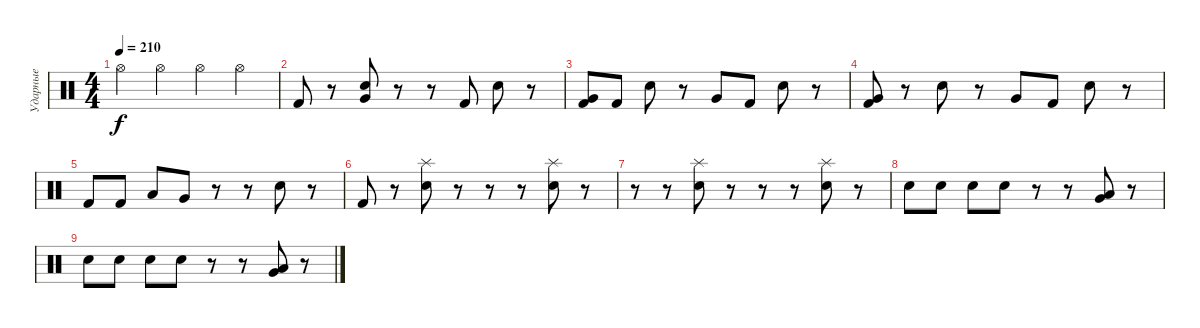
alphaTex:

\track ("Ударные" "Ударные") {instrument percussion}
\staff {score}
\articulation defaults
\ts (4 4)
\tempo 210
\clef neutral
\ks c "Hi-Hat (open)".4{dy f} "Hi-Hat (open)".4 "Hi-Hat (open)".4 "Hi-Hat (open)".4
|
"Kick (hit) 2".8 r.8 ("Very Low Tom (hit)" "Electric Snare (hit)").8 r.8 r.8 "Kick (hit) 2".8 "Electric Snare (hit)".8 r.8 |
("Very Low Tom (hit)" "Kick (hit) 2").8 "Kick (hit) 2".8 "Electric Snare (hit)".8 r.8 "Very Low Tom (hit)".8 "Kick (hit) 2".8 "Electric Snare (hit)".8 r.8 |
("Very Low Tom (hit)" "Kick (hit) 2").8 r.8 "Electric Snare (hit)".8 r.8 "Very Low Tom (hit)".8 "Kick (hit) 2".8 "Electric Snare (hit)".8 r.8 |
"Kick (hit) 2".8 "Kick (hit) 2".8 "Low Tom (hit)".8 "Very Low Tom (hit)".8 r.8 r.8 "Electric Snare (hit)".8 r.8 |
"Kick (hit) 2".8 r.8 ("Splash (hit)" "Electric Snare (hit)").8 r.8 r.8 r.8 ("Splash (hit)" "Electric Snare (hit)").8 r.8 |
r.8 r.8 ("Splash (hit)" "Electric Snare (hit)").8 r.8 r.8 r.8 ("Splash (hit)" "Electric Snare (hit)").8 r.8 |
"Electric Snare (hit)".8 "Electric Snare (hit)".8 "Electric Snare (hit)".8 "Electric Snare (hit)".8 r.8 r.8 ("Very Low Tom (hit)" "Low Floor Tom (hit)").8 r.8 |
"Electric Snare (hit)".8 "Electric Snare (hit)".8 "Electric Snare (hit)".8 "Electric Snare (hit)".8 r.8 r.8 ("Very Low Tom (hit)" "Low Floor Tom (hit)").8 r.8
